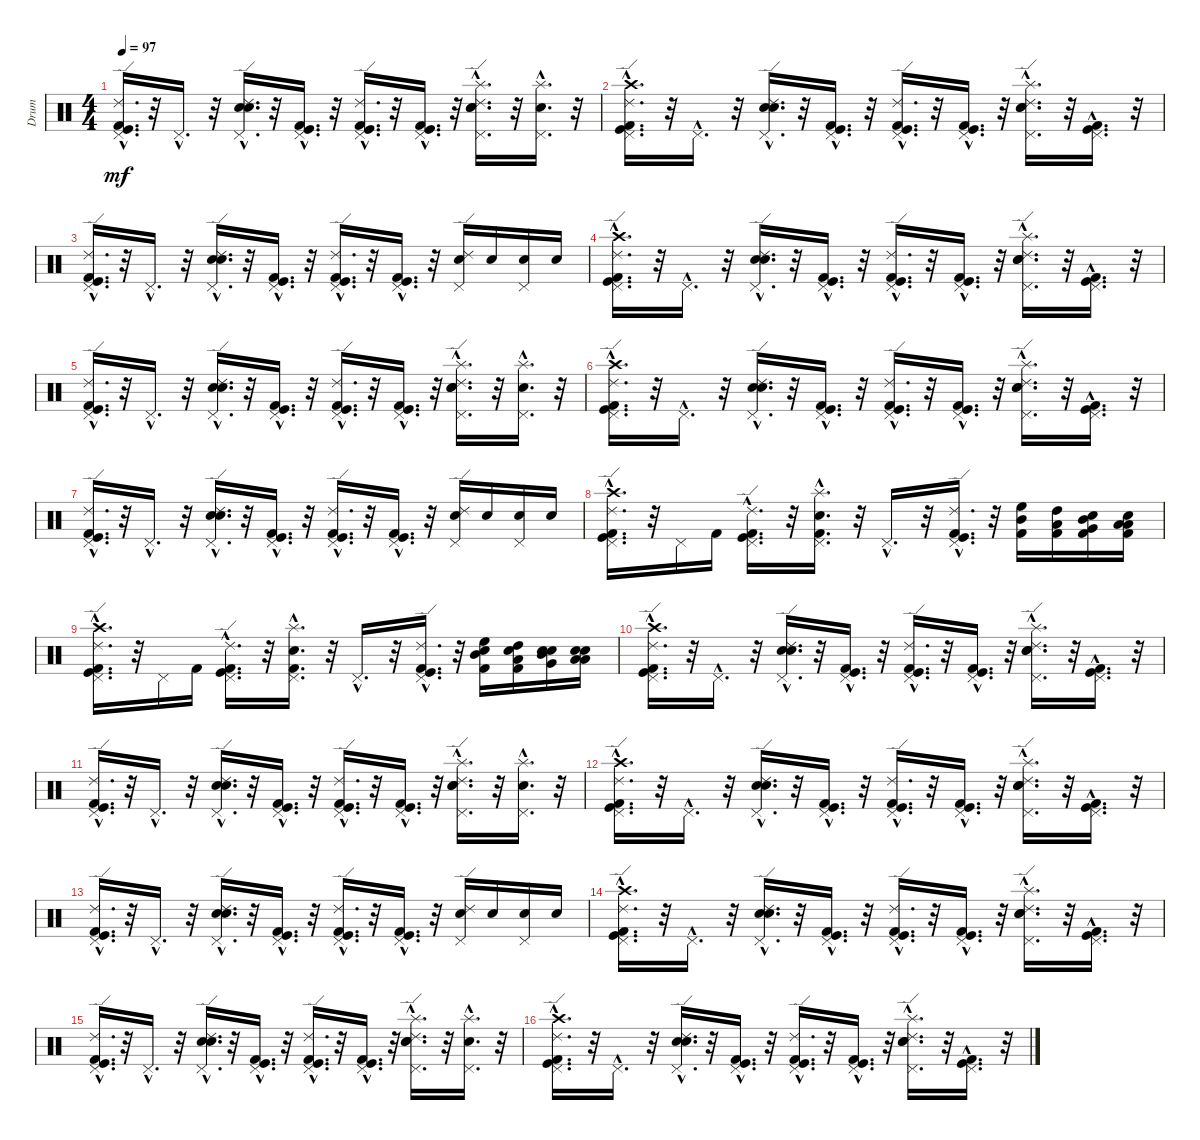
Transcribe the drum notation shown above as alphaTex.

\track ("Drum" "Drum") {instrument percussion}
\staff {score}
\articulation defaults
\ts (4 4)
\tempo 97
\clef neutral
\ks c
("Kick (hit)"{hac} "Kick (hit) 2"{hac} "Ride (edge) 2"{hac} "Pedal Hi-Hat (hit)"{hac}).16{d dy mf} r.32 "Pedal Hi-Hat (hit)"{hac}.16{d} r.32 ("Electric Snare (hit)"{hac} "Snare (hit) 2"{hac} "Ride (edge) 2"{hac} "Pedal Hi-Hat (hit)"{hac}).16{d} r.32 ("Kick (hit) 2"{hac} "Kick (hit)"{hac} "Pedal Hi-Hat (hit)"{hac}).16{d} r.32 ("Kick (hit) 2"{hac} "Kick (hit)"{hac} "Ride (edge) 2"{hac} "Pedal Hi-Hat (hit)"{hac}).16{d} r.32 ("Kick (hit) 2"{hac} "Kick (hit)"{hac} "Pedal Hi-Hat (hit)"{hac}).16{d} r.32 ("Splash (hit)"{hac} "Electric Snare (hit)"{hac} "Snare (hit) 2"{hac} "Ride (edge) 2"{hac} "Pedal Hi-Hat (hit)"{hac}).16{d} r.32 ("Pedal Hi-Hat (hit)"{hac} "Snare (hit) 2"{hac} "Splash (hit)"{hac}).16{d} r.32 |
("Crash high (hit)"{hac} "Kick (hit)"{hac} "Kick (hit) 2"{hac} "Ride (edge) 2"{hac} "Pedal Hi-Hat (hit)"{hac}).16{d} r.32 "Pedal Hi-Hat (hit)"{hac}.16{d} r.32 ("Electric Snare (hit)"{hac} "Snare (hit) 2"{hac} "Ride (edge) 2"{hac} "Pedal Hi-Hat (hit)"{hac}).16{d} r.32 ("Kick (hit) 2"{hac} "Kick (hit)"{hac} "Pedal Hi-Hat (hit)"{hac}).16{d} r.32 ("Kick (hit) 2"{hac} "Kick (hit)"{hac} "Ride (edge) 2"{hac} "Pedal Hi-Hat (hit)"{hac}).16{d} r.32 ("Kick (hit) 2"{hac} "Kick (hit)"{hac} "Pedal Hi-Hat (hit)"{hac}).16{d} r.32 ("Splash (hit)"{hac} "Electric Snare (hit)"{hac} "Snare (hit) 2"{hac} "Ride (edge) 2"{hac} "Pedal Hi-Hat (hit)"{hac}).16{d} r.32 ("Kick (hit)"{hac} "Pedal Hi-Hat (hit)"{hac} "Kick (hit) 2"{hac}).16{d} r.32 |
("Pedal Hi-Hat (hit)"{hac} "Ride (edge) 2"{hac} "Kick (hit) 2"{hac} "Kick (hit)"{hac}).16{d} r.32 "Pedal Hi-Hat (hit)"{hac}.16{d} r.32 ("Pedal Hi-Hat (hit)"{hac} "Ride (edge) 2"{hac} "Snare (hit) 2"{hac} "Electric Snare (hit)"{hac}).16{d} r.32 ("Pedal Hi-Hat (hit)"{hac} "Kick (hit)"{hac} "Kick (hit) 2"{hac}).16{d} r.32 ("Pedal Hi-Hat (hit)"{hac} "Ride (edge) 2"{hac} "Kick (hit)"{hac} "Kick (hit) 2"{hac}).16{d} r.32 ("Pedal Hi-Hat (hit)"{hac} "Kick (hit)"{hac} "Kick (hit) 2"{hac}).16{d} r.32 ("Snare (hit) 2" "Pedal Hi-Hat (hit)" "Ride (edge) 2").16 "Snare (hit) 2".16 ("Snare (hit) 2" "Pedal Hi-Hat (hit)").16 "Snare (hit) 2".16 |
("Crash high (hit)"{hac} "Kick (hit)"{hac} "Kick (hit) 2"{hac} "Ride (edge) 2"{hac} "Pedal Hi-Hat (hit)"{hac}).16{d} r.32 "Pedal Hi-Hat (hit)"{hac}.16{d} r.32 ("Electric Snare (hit)"{hac} "Snare (hit) 2"{hac} "Ride (edge) 2"{hac} "Pedal Hi-Hat (hit)"{hac}).16{d} r.32 ("Kick (hit) 2"{hac} "Kick (hit)"{hac} "Pedal Hi-Hat (hit)"{hac}).16{d} r.32 ("Kick (hit) 2"{hac} "Kick (hit)"{hac} "Ride (edge) 2"{hac} "Pedal Hi-Hat (hit)"{hac}).16{d} r.32 ("Kick (hit) 2"{hac} "Kick (hit)"{hac} "Pedal Hi-Hat (hit)"{hac}).16{d} r.32 ("Splash (hit)"{hac} "Electric Snare (hit)"{hac} "Snare (hit) 2"{hac} "Ride (edge) 2"{hac} "Pedal Hi-Hat (hit)"{hac}).16{d} r.32 ("Kick (hit)"{hac} "Pedal Hi-Hat (hit)"{hac} "Kick (hit) 2"{hac}).16{d} r.32 |
("Pedal Hi-Hat (hit)"{hac} "Ride (edge) 2"{hac} "Kick (hit) 2"{hac} "Kick (hit)"{hac}).16{d} r.32 "Pedal Hi-Hat (hit)"{hac}.16{d} r.32 ("Pedal Hi-Hat (hit)"{hac} "Ride (edge) 2"{hac} "Snare (hit) 2"{hac} "Electric Snare (hit)"{hac}).16{d} r.32 ("Pedal Hi-Hat (hit)"{hac} "Kick (hit)"{hac} "Kick (hit) 2"{hac}).16{d} r.32 ("Pedal Hi-Hat (hit)"{hac} "Ride (edge) 2"{hac} "Kick (hit)"{hac} "Kick (hit) 2"{hac}).16{d} r.32 ("Pedal Hi-Hat (hit)"{hac} "Kick (hit)"{hac} "Kick (hit) 2"{hac}).16{d} r.32 ("Pedal Hi-Hat (hit)"{hac} "Ride (edge) 2"{hac} "Snare (hit) 2"{hac} "Electric Snare (hit)"{hac} "Splash (hit)"{hac}).16{d} r.32 ("Splash (hit)"{hac} "Snare (hit) 2"{hac} "Pedal Hi-Hat (hit)"{hac}).16{d} r.32 |
("Pedal Hi-Hat (hit)"{hac} "Ride (edge) 2"{hac} "Kick (hit) 2"{hac} "Kick (hit)"{hac} "Crash high (hit)"{hac}).16{d} r.32 "Pedal Hi-Hat (hit)"{hac}.16{d} r.32 ("Pedal Hi-Hat (hit)"{hac} "Ride (edge) 2"{hac} "Snare (hit) 2"{hac} "Electric Snare (hit)"{hac}).16{d} r.32 ("Pedal Hi-Hat (hit)"{hac} "Kick (hit)"{hac} "Kick (hit) 2"{hac}).16{d} r.32 ("Pedal Hi-Hat (hit)"{hac} "Ride (edge) 2"{hac} "Kick (hit)"{hac} "Kick (hit) 2"{hac}).16{d} r.32 ("Pedal Hi-Hat (hit)"{hac} "Kick (hit)"{hac} "Kick (hit) 2"{hac}).16{d} r.32 ("Pedal Hi-Hat (hit)"{hac} "Ride (edge) 2"{hac} "Snare (hit) 2"{hac} "Electric Snare (hit)"{hac} "Splash (hit)"{hac}).16{d} r.32 ("Kick (hit) 2"{hac} "Pedal Hi-Hat (hit)"{hac} "Kick (hit)"{hac}).16{d} r.32 |
("Kick (hit)"{hac} "Kick (hit) 2"{hac} "Ride (edge) 2"{hac} "Pedal Hi-Hat (hit)"{hac}).16{d} r.32 "Pedal Hi-Hat (hit)"{hac}.16{d} r.32 ("Electric Snare (hit)"{hac} "Snare (hit) 2"{hac} "Ride (edge) 2"{hac} "Pedal Hi-Hat (hit)"{hac}).16{d} r.32 ("Kick (hit) 2"{hac} "Kick (hit)"{hac} "Pedal Hi-Hat (hit)"{hac}).16{d} r.32 ("Kick (hit) 2"{hac} "Kick (hit)"{hac} "Ride (edge) 2"{hac} "Pedal Hi-Hat (hit)"{hac}).16{d} r.32 ("Kick (hit) 2"{hac} "Kick (hit)"{hac} "Pedal Hi-Hat (hit)"{hac}).16{d} r.32 ("Ride (edge) 2" "Pedal Hi-Hat (hit)" "Snare (hit) 2").16 "Snare (hit) 2".16 ("Pedal Hi-Hat (hit)" "Snare (hit) 2").16 "Snare (hit) 2".16 |
("Pedal Hi-Hat (hit)"{hac} "Ride (edge) 2"{hac} "Kick (hit) 2"{hac} "Crash high (hit)"{hac} "Kick (hit)"{hac}).16{d} r.32 "Pedal Hi-Hat (hit)".16 "Kick (hit) 2".16 ("Kick (hit)"{hac} "Kick (hit) 2"{hac} "Pedal Hi-Hat (hit)"{hac} "Ride (edge) 2"{hac}).16{d} r.32 ("Kick (hit) 2"{hac} "Snare (hit) 2"{hac} "Splash (hit)"{hac} "Pedal Hi-Hat (hit)"{hac}).16{d} r.32 "Pedal Hi-Hat (hit)"{hac}.16{d} r.32 ("Ride (edge) 2"{hac} "Kick (hit) 2"{hac} "Pedal Hi-Hat (hit)"{hac} "Kick (hit)"{hac}).16{d} r.32 ("Kick (hit) 2" "Mid Tom (hit)" "High Floor Tom (hit)").16 ("Kick (hit) 2" "Low Tom (hit)" "High Tom (hit)").16 ("Electric Snare (hit)" "Kick (hit) 2" "Very Low Tom (hit)" "Mid Tom (hit)").16 ("Electric Snare (hit)" "Kick (hit) 2" "Low Floor Tom (hit)" "Low Tom (hit)").16 |
("Kick (hit)"{hac} "Crash high (hit)"{hac} "Kick (hit) 2"{hac} "Ride (edge) 2"{hac} "Pedal Hi-Hat (hit)"{hac}).16{d} r.32 "Pedal Hi-Hat (hit)".16 "Kick (hit) 2".16 ("Ride (edge) 2"{hac} "Pedal Hi-Hat (hit)"{hac} "Kick (hit) 2"{hac} "Kick (hit)"{hac}).16{d} r.32 ("Pedal Hi-Hat (hit)"{hac} "Splash (hit)"{hac} "Snare (hit) 2"{hac} "Kick (hit) 2"{hac}).16{d} r.32 "Pedal Hi-Hat (hit)"{hac}.16{d} r.32 ("Ride (edge) 2"{hac} "Kick (hit)"{hac} "Pedal Hi-Hat (hit)"{hac} "Kick (hit) 2"{hac}).16{d} r.32 ("Electric Snare (hit)" "High Floor Tom (hit)" "Mid Tom (hit)" "Kick (hit) 2").16 ("Electric Snare (hit)" "High Tom (hit)" "Low Tom (hit)" "Kick (hit) 2").16 ("Mid Tom (hit)" "Very Low Tom (hit)" "Snare (hit) 2" "Electric Snare (hit)").16 ("Low Tom (hit)" "Low Floor Tom (hit)" "Snare (hit) 2" "Electric Snare (hit)").16 |
("Pedal Hi-Hat (hit)"{hac} "Ride (edge) 2"{hac} "Kick (hit) 2"{hac} "Kick (hit)"{hac} "Crash high (hit)"{hac}).16{d} r.32 "Pedal Hi-Hat (hit)"{hac}.16{d} r.32 ("Pedal Hi-Hat (hit)"{hac} "Ride (edge) 2"{hac} "Snare (hit) 2"{hac} "Electric Snare (hit)"{hac}).16{d} r.32 ("Pedal Hi-Hat (hit)"{hac} "Kick (hit)"{hac} "Kick (hit) 2"{hac}).16{d} r.32 ("Pedal Hi-Hat (hit)"{hac} "Ride (edge) 2"{hac} "Kick (hit)"{hac} "Kick (hit) 2"{hac}).16{d} r.32 ("Pedal Hi-Hat (hit)"{hac} "Kick (hit)"{hac} "Kick (hit) 2"{hac}).16{d} r.32 ("Pedal Hi-Hat (hit)"{hac} "Ride (edge) 2"{hac} "Snare (hit) 2"{hac} "Electric Snare (hit)"{hac} "Splash (hit)"{hac}).16{d} r.32 ("Kick (hit) 2"{hac} "Pedal Hi-Hat (hit)"{hac} "Kick (hit)"{hac}).16{d} r.32 |
("Kick (hit)"{hac} "Kick (hit) 2"{hac} "Ride (edge) 2"{hac} "Pedal Hi-Hat (hit)"{hac}).16{d} r.32 "Pedal Hi-Hat (hit)"{hac}.16{d} r.32 ("Electric Snare (hit)"{hac} "Snare (hit) 2"{hac} "Ride (edge) 2"{hac} "Pedal Hi-Hat (hit)"{hac}).16{d} r.32 ("Kick (hit) 2"{hac} "Kick (hit)"{hac} "Pedal Hi-Hat (hit)"{hac}).16{d} r.32 ("Kick (hit) 2"{hac} "Kick (hit)"{hac} "Ride (edge) 2"{hac} "Pedal Hi-Hat (hit)"{hac}).16{d} r.32 ("Kick (hit) 2"{hac} "Kick (hit)"{hac} "Pedal Hi-Hat (hit)"{hac}).16{d} r.32 ("Splash (hit)"{hac} "Electric Snare (hit)"{hac} "Snare (hit) 2"{hac} "Ride (edge) 2"{hac} "Pedal Hi-Hat (hit)"{hac}).16{d} r.32 ("Pedal Hi-Hat (hit)"{hac} "Snare (hit) 2"{hac} "Splash (hit)"{hac}).16{d} r.32 |
("Crash high (hit)"{hac} "Kick (hit)"{hac} "Kick (hit) 2"{hac} "Ride (edge) 2"{hac} "Pedal Hi-Hat (hit)"{hac}).16{d} r.32 "Pedal Hi-Hat (hit)"{hac}.16{d} r.32 ("Electric Snare (hit)"{hac} "Snare (hit) 2"{hac} "Ride (edge) 2"{hac} "Pedal Hi-Hat (hit)"{hac}).16{d} r.32 ("Kick (hit) 2"{hac} "Kick (hit)"{hac} "Pedal Hi-Hat (hit)"{hac}).16{d} r.32 ("Kick (hit) 2"{hac} "Kick (hit)"{hac} "Ride (edge) 2"{hac} "Pedal Hi-Hat (hit)"{hac}).16{d} r.32 ("Kick (hit) 2"{hac} "Kick (hit)"{hac} "Pedal Hi-Hat (hit)"{hac}).16{d} r.32 ("Splash (hit)"{hac} "Electric Snare (hit)"{hac} "Snare (hit) 2"{hac} "Ride (edge) 2"{hac} "Pedal Hi-Hat (hit)"{hac}).16{d} r.32 ("Kick (hit)"{hac} "Pedal Hi-Hat (hit)"{hac} "Kick (hit) 2"{hac}).16{d} r.32 |
("Pedal Hi-Hat (hit)"{hac} "Ride (edge) 2"{hac} "Kick (hit) 2"{hac} "Kick (hit)"{hac}).16{d} r.32 "Pedal Hi-Hat (hit)"{hac}.16{d} r.32 ("Pedal Hi-Hat (hit)"{hac} "Ride (edge) 2"{hac} "Snare (hit) 2"{hac} "Electric Snare (hit)"{hac}).16{d} r.32 ("Pedal Hi-Hat (hit)"{hac} "Kick (hit)"{hac} "Kick (hit) 2"{hac}).16{d} r.32 ("Pedal Hi-Hat (hit)"{hac} "Ride (edge) 2"{hac} "Kick (hit)"{hac} "Kick (hit) 2"{hac}).16{d} r.32 ("Pedal Hi-Hat (hit)"{hac} "Kick (hit)"{hac} "Kick (hit) 2"{hac}).16{d} r.32 ("Snare (hit) 2" "Pedal Hi-Hat (hit)" "Ride (edge) 2").16 "Snare (hit) 2".16 ("Snare (hit) 2" "Pedal Hi-Hat (hit)").16 "Snare (hit) 2".16 |
("Crash high (hit)"{hac} "Kick (hit)"{hac} "Kick (hit) 2"{hac} "Ride (edge) 2"{hac} "Pedal Hi-Hat (hit)"{hac}).16{d} r.32 "Pedal Hi-Hat (hit)"{hac}.16{d} r.32 ("Electric Snare (hit)"{hac} "Snare (hit) 2"{hac} "Ride (edge) 2"{hac} "Pedal Hi-Hat (hit)"{hac}).16{d} r.32 ("Kick (hit) 2"{hac} "Kick (hit)"{hac} "Pedal Hi-Hat (hit)"{hac}).16{d} r.32 ("Kick (hit) 2"{hac} "Kick (hit)"{hac} "Ride (edge) 2"{hac} "Pedal Hi-Hat (hit)"{hac}).16{d} r.32 ("Kick (hit) 2"{hac} "Kick (hit)"{hac} "Pedal Hi-Hat (hit)"{hac}).16{d} r.32 ("Splash (hit)"{hac} "Electric Snare (hit)"{hac} "Snare (hit) 2"{hac} "Ride (edge) 2"{hac} "Pedal Hi-Hat (hit)"{hac}).16{d} r.32 ("Kick (hit)"{hac} "Pedal Hi-Hat (hit)"{hac} "Kick (hit) 2"{hac}).16{d} r.32 |
("Pedal Hi-Hat (hit)"{hac} "Ride (edge) 2"{hac} "Kick (hit) 2"{hac} "Kick (hit)"{hac}).16{d} r.32 "Pedal Hi-Hat (hit)"{hac}.16{d} r.32 ("Pedal Hi-Hat (hit)"{hac} "Ride (edge) 2"{hac} "Snare (hit) 2"{hac} "Electric Snare (hit)"{hac}).16{d} r.32 ("Pedal Hi-Hat (hit)"{hac} "Kick (hit)"{hac} "Kick (hit) 2"{hac}).16{d} r.32 ("Pedal Hi-Hat (hit)"{hac} "Ride (edge) 2"{hac} "Kick (hit)"{hac} "Kick (hit) 2"{hac}).16{d} r.32 ("Pedal Hi-Hat (hit)"{hac} "Kick (hit)"{hac} "Kick (hit) 2"{hac}).16{d} r.32 ("Pedal Hi-Hat (hit)"{hac} "Ride (edge) 2"{hac} "Snare (hit) 2"{hac} "Electric Snare (hit)"{hac} "Splash (hit)"{hac}).16{d} r.32 ("Splash (hit)"{hac} "Snare (hit) 2"{hac} "Pedal Hi-Hat (hit)"{hac}).16{d} r.32 |
("Pedal Hi-Hat (hit)"{hac} "Ride (edge) 2"{hac} "Kick (hit) 2"{hac} "Kick (hit)"{hac} "Crash high (hit)"{hac}).16{d} r.32 "Pedal Hi-Hat (hit)"{hac}.16{d} r.32 ("Pedal Hi-Hat (hit)"{hac} "Ride (edge) 2"{hac} "Snare (hit) 2"{hac} "Electric Snare (hit)"{hac}).16{d} r.32 ("Pedal Hi-Hat (hit)"{hac} "Kick (hit)"{hac} "Kick (hit) 2"{hac}).16{d} r.32 ("Pedal Hi-Hat (hit)"{hac} "Ride (edge) 2"{hac} "Kick (hit)"{hac} "Kick (hit) 2"{hac}).16{d} r.32 ("Pedal Hi-Hat (hit)"{hac} "Kick (hit)"{hac} "Kick (hit) 2"{hac}).16{d} r.32 ("Pedal Hi-Hat (hit)"{hac} "Ride (edge) 2"{hac} "Snare (hit) 2"{hac} "Electric Snare (hit)"{hac} "Splash (hit)"{hac}).16{d} r.32 ("Kick (hit) 2"{hac} "Pedal Hi-Hat (hit)"{hac} "Kick (hit)"{hac}).16{d} r.32
